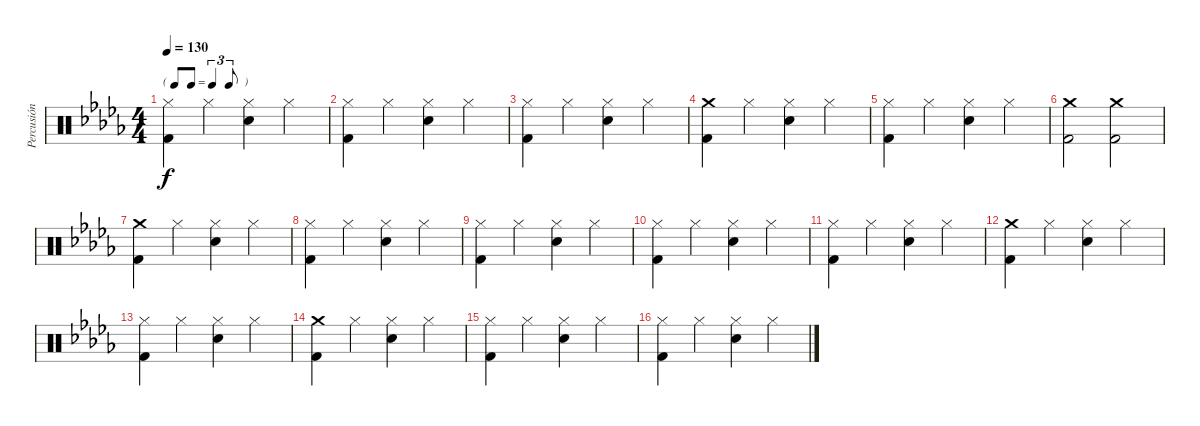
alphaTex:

\track ("Percusión" "Percusión") {instrument percussion}
\staff {score}
\articulation defaults
\ts (4 4)
\tf triplet8th
\tempo 130
\clef neutral
\ks db
("Hi-Hat (closed)" "Kick (hit) 2").4{dy f} "Hi-Hat (closed)".4 ("Hi-Hat (closed)" "Snare (hit) 2").4 "Hi-Hat (closed)".4 |
("Hi-Hat (closed)" "Kick (hit) 2").4 "Hi-Hat (closed)".4 ("Hi-Hat (closed)" "Snare (hit) 2").4 "Hi-Hat (closed)".4 |
("Hi-Hat (closed)" "Kick (hit) 2").4 "Hi-Hat (closed)".4 ("Hi-Hat (closed)" "Snare (hit) 2").4 "Hi-Hat (closed)".4 |
("Crash medium (hit)" "Kick (hit) 2").4 "Hi-Hat (closed)".4 ("Hi-Hat (closed)" "Snare (hit) 2").4 "Hi-Hat (closed)".4 |
("Hi-Hat (closed)" "Kick (hit) 2").4 "Hi-Hat (closed)".4 ("Hi-Hat (closed)" "Snare (hit) 2").4 "Hi-Hat (closed)".4 |
("Crash medium (hit)" "Kick (hit) 2").2 ("Crash medium (hit)" "Kick (hit) 2").2 |
("Crash medium (hit)" "Kick (hit) 2").4 "Hi-Hat (closed)".4 ("Hi-Hat (closed)" "Snare (hit) 2").4 "Hi-Hat (closed)".4 |
("Hi-Hat (closed)" "Kick (hit) 2").4 "Hi-Hat (closed)".4 ("Hi-Hat (closed)" "Snare (hit) 2").4 "Hi-Hat (closed)".4 |
("Hi-Hat (closed)" "Kick (hit) 2").4 "Hi-Hat (closed)".4 ("Hi-Hat (closed)" "Snare (hit) 2").4 "Hi-Hat (closed)".4 |
("Hi-Hat (closed)" "Kick (hit) 2").4 "Hi-Hat (closed)".4 ("Hi-Hat (closed)" "Snare (hit) 2").4 "Hi-Hat (closed)".4 |
("Hi-Hat (closed)" "Kick (hit) 2").4 "Hi-Hat (closed)".4 ("Hi-Hat (closed)" "Snare (hit) 2").4 "Hi-Hat (closed)".4 |
("Crash medium (hit)" "Kick (hit) 2").4 "Hi-Hat (closed)".4 ("Hi-Hat (closed)" "Snare (hit) 2").4 "Hi-Hat (closed)".4 |
("Hi-Hat (closed)" "Kick (hit) 2").4 "Hi-Hat (closed)".4 ("Hi-Hat (closed)" "Snare (hit) 2").4 "Hi-Hat (closed)".4 |
("Crash medium (hit)" "Kick (hit) 2").4 "Hi-Hat (closed)".4 ("Hi-Hat (closed)" "Snare (hit) 2").4 "Hi-Hat (closed)".4 |
("Hi-Hat (closed)" "Kick (hit) 2").4 "Hi-Hat (closed)".4 ("Hi-Hat (closed)" "Snare (hit) 2").4 "Hi-Hat (closed)".4 |
("Hi-Hat (closed)" "Kick (hit) 2").4 "Hi-Hat (closed)".4 ("Hi-Hat (closed)" "Snare (hit) 2").4 "Hi-Hat (closed)".4
